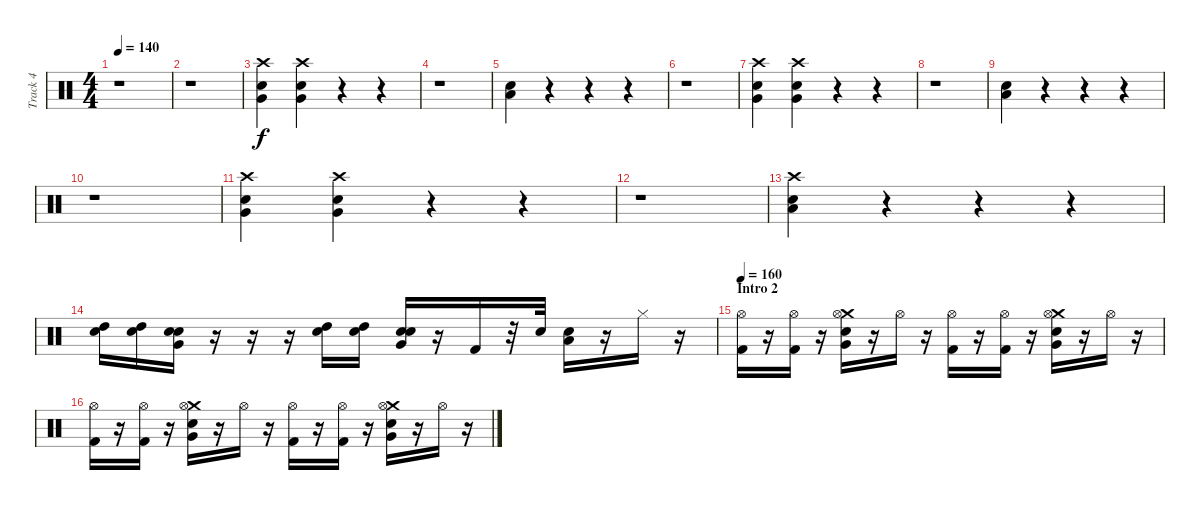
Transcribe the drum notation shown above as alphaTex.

\track ("Track 4" "Track 4") {instrument percussion}
\staff {score}
\articulation defaults
\ts (4 4)
\tempo 140
\clef neutral
\ks c
r.1{dy f} |
r.1 |
("Very Low Tom (hit)" "Snare (hit) 2" "Crash high (hit)").4 ("Very Low Tom (hit)" "Snare (hit) 2" "Crash high (hit)").4 r.4 r.4 |
r.1 |
("Low Floor Tom (hit)" "Snare (hit) 2").4 r.4 r.4 r.4 |
r.1 |
("Very Low Tom (hit)" "Snare (hit) 2" "Crash high (hit)").4 ("Very Low Tom (hit)" "Snare (hit) 2" "Crash high (hit)").4 r.4 r.4 |
r.1 |
("Low Floor Tom (hit)" "Snare (hit) 2").4 r.4 r.4 r.4 |
r.1 |
("Very Low Tom (hit)" "Snare (hit) 2" "Crash high (hit)").4 ("Very Low Tom (hit)" "Snare (hit) 2" "Crash high (hit)").4 r.4 r.4 |
r.1 |
("Low Floor Tom (hit)" "Snare (hit) 2" "Crash high (hit)").4 r.4 r.4 r.4 |
("Electric Snare (hit)" "High Tom (hit)").16 ("Electric Snare (hit)" "High Tom (hit)").16 ("Electric Snare (hit)" "Very Low Tom (hit)" "Snare (hit) 2").16 r.16 r.16 r.16 ("Electric Snare (hit)" "High Tom (hit)").16 ("Electric Snare (hit)" "High Tom (hit)").16 ("Electric Snare (hit)" "Very Low Tom (hit)" "Snare (hit) 2").16 r.16 "Kick (hit) 2".16 r.32 "Electric Snare (hit)".32 ("Electric Snare (hit)" "Low Tom (hit)").16 r.16 "Hi-Hat (closed)".16 r.16 |
\section ("" "Intro 2")
\tempo 160
("Kick (hit) 2" "Hi-Hat (open)").16 r.16 ("Kick (hit) 2" "Hi-Hat (open)").16 r.16 ("Very Low Tom (hit)" "Electric Snare (hit)" "Crash medium (hit)" "Hi-Hat (open)").16 r.16 "Hi-Hat (open)".16 r.16 ("Kick (hit) 2" "Hi-Hat (open)").16 r.16 ("Kick (hit) 2" "Hi-Hat (open)").16 r.16 ("Very Low Tom (hit)" "Electric Snare (hit)" "Crash medium (hit)" "Hi-Hat (open)").16 r.16 "Hi-Hat (open)".16 r.16 |
("Kick (hit) 2" "Hi-Hat (open)").16 r.16 ("Kick (hit) 2" "Hi-Hat (open)").16 r.16 ("Very Low Tom (hit)" "Electric Snare (hit)" "Crash medium (hit)" "Hi-Hat (open)").16 r.16 "Hi-Hat (open)".16 r.16 ("Kick (hit) 2" "Hi-Hat (open)").16 r.16 ("Kick (hit) 2" "Hi-Hat (open)").16 r.16 ("Very Low Tom (hit)" "Electric Snare (hit)" "Crash medium (hit)" "Hi-Hat (open)").16 r.16 "Hi-Hat (open)".16 r.16
